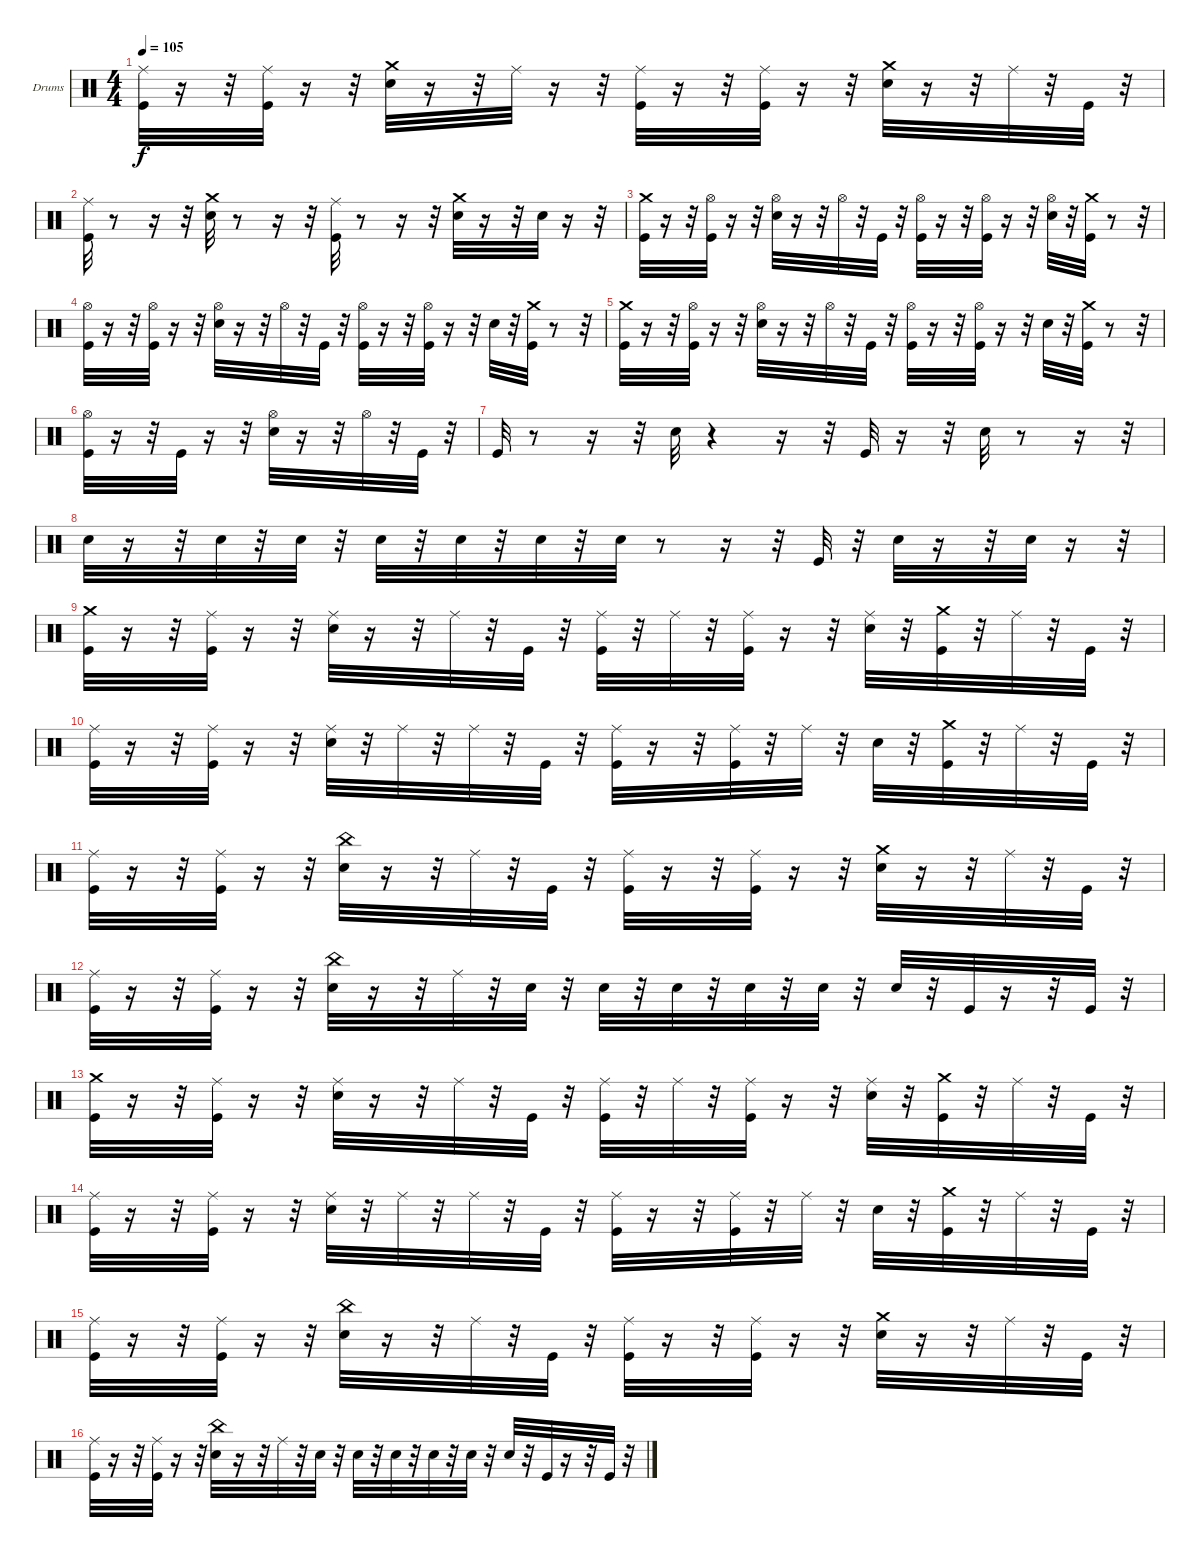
\defaultSystemsLayout 4
\bracketExtendMode groupsimilarinstruments
\firstSystemTrackNameOrientation horizontal
\otherSystemsTrackNameOrientation horizontal
\track ("Drumkit" "Drums") {instrument percussion}
\staff {score}
\articulation defaults
\ts (4 4)
\tempo 105
\clef neutral
\ks c
("Kick (hit)" "Ride (middle)").32{dy f} r.16 r.32 ("Ride (middle)" "Kick (hit)").32 r.16 r.32 ("Crash medium (hit)" "Snare (hit) 2").32 r.16 r.32 "Ride (middle)".32 r.16 r.32 ("Kick (hit)" "Ride (middle)").32 r.16 r.32 ("Ride (middle)" "Kick (hit)").32 r.16 r.32 ("Crash medium (hit)" "Snare (hit) 2").32 r.16 r.32 "Ride (middle)".32 r.32 "Kick (hit)".32 r.32 |
("Kick (hit)" "Ride (middle)").32 r.8 r.16 r.32 ("Crash medium (hit)" "Snare (hit) 2").32 r.8 r.16 r.32 ("Kick (hit)" "Ride (middle)").32 r.8 r.16 r.32 ("Crash medium (hit)" "Snare (hit) 2").32 r.16 r.32 "Snare (hit) 2".32 r.16 r.32 |
("Crash medium (hit)" "Kick (hit)").32 r.16 r.32 ("Hi-Hat (open)" "Kick (hit)").32 r.16 r.32 ("Hi-Hat (open)" "Snare (hit) 2").32 r.16 r.32 "Hi-Hat (open)".32 r.32 "Kick (hit)".32 r.32 ("Kick (hit)" "Hi-Hat (open)").32 r.16 r.32 ("Kick (hit)" "Hi-Hat (open)").32 r.16 r.32 ("Hi-Hat (open)" "Snare (hit) 2").32 r.32 ("Kick (hit)" "Crash medium (hit)").32 r.8 r.32 |
("Hi-Hat (open)" "Kick (hit)").32 r.16 r.32 ("Kick (hit)" "Hi-Hat (open)").32 r.16 r.32 ("Hi-Hat (open)" "Snare (hit) 2").32 r.16 r.32 "Hi-Hat (open)".32 r.32 "Kick (hit)".32 r.32 ("Kick (hit)" "Hi-Hat (open)").32 r.16 r.32 ("Kick (hit)" "Hi-Hat (open)").32 r.16 r.32 "Snare (hit) 2".32 r.32 ("Kick (hit)" "Crash medium (hit)").32 r.8 r.32 |
("Crash medium (hit)" "Kick (hit)").32 r.16 r.32 ("Kick (hit)" "Hi-Hat (open)").32 r.16 r.32 ("Snare (hit) 2" "Hi-Hat (open)").32 r.16 r.32 "Hi-Hat (open)".32 r.32 "Kick (hit)".32 r.32 ("Kick (hit)" "Hi-Hat (open)").32 r.16 r.32 ("Hi-Hat (open)" "Kick (hit)").32 r.16 r.32 "Snare (hit) 2".32 r.32 ("Crash medium (hit)" "Kick (hit)").32 r.8 r.32 |
("Kick (hit)" "Hi-Hat (open)").32 r.16 r.32 "Kick (hit)".32 r.16 r.32 ("Snare (hit) 2" "Hi-Hat (open)").32 r.16 r.32 "Hi-Hat (open)".32 r.32 "Kick (hit)".32 r.32 |
"Kick (hit)".32 r.8 r.16 r.32 "Snare (hit) 2".32 r.4 r.16 r.32 "Kick (hit)".32 r.16 r.32 "Snare (hit) 2".32 r.8 r.16 r.32 |
"Snare (hit) 2".32 r.16 r.32 "Snare (hit) 2".32 r.32 "Snare (hit) 2".32 r.32 "Snare (hit) 2".32 r.32 "Snare (hit) 2".32 r.32 "Snare (hit) 2".32 r.32 "Snare (hit) 2".32 r.8 r.16 r.32 "Kick (hit)".32 r.32 "Snare (hit) 2".32 r.16 r.32 "Snare (hit) 2".32 r.16 r.32 |
("Crash medium (hit)" "Kick (hit)").32 r.16 r.32 ("Kick (hit)" "Ride (middle)").32 r.16 r.32 ("Ride (middle)" "Snare (hit) 2").32 r.16 r.32 "Ride (middle)".32 r.32 "Kick (hit)".32 r.32 ("Kick (hit)" "Ride (middle)").32 r.32 "Ride (middle)".32 r.32 ("Ride (middle)" "Kick (hit)").32 r.16 r.32 ("Snare (hit) 2" "Ride (middle)").32 r.32 ("Crash medium (hit)" "Kick (hit)").32 r.32 "Ride (middle)".32 r.32 "Kick (hit)".32 r.32 |
("Kick (hit)" "Ride (middle)").32 r.16 r.32 ("Kick (hit)" "Ride (middle)").32 r.16 r.32 ("Snare (hit) 2" "Ride (middle)").32 r.32 "Ride (middle)".32 r.32 "Ride (middle)".32 r.32 "Kick (hit)".32 r.32 ("Ride (middle)" "Kick (hit)").32 r.16 r.32 ("Kick (hit)" "Ride (middle)").32 r.32 "Ride (middle)".32 r.32 "Snare (hit) 2".32 r.32 ("Kick (hit)" "Crash medium (hit)").32 r.32 "Ride (middle)".32 r.32 "Kick (hit)".32 r.32 |
("Kick (hit)" "Ride (middle)").32 r.16 r.32 ("Kick (hit)" "Ride (middle)").32 r.16 r.32 ("China (hit)" "Snare (hit) 2").32 r.16 r.32 "Ride (middle)".32 r.32 "Kick (hit)".32 r.32 ("Kick (hit)" "Ride (middle)").32 r.16 r.32 ("Ride (middle)" "Kick (hit)").32 r.16 r.32 ("Snare (hit) 2" "Crash medium (hit)").32 r.16 r.32 "Ride (middle)".32 r.32 "Kick (hit)".32 r.32 |
("Ride (middle)" "Kick (hit)").32 r.16 r.32 ("Kick (hit)" "Ride (middle)").32 r.16 r.32 ("Snare (hit) 2" "China (hit)").32 r.16 r.32 "Ride (middle)".32 r.32 "Snare (hit) 2".32 r.32 "Snare (hit) 2".32 r.32 "Snare (hit) 2".32 r.32 "Snare (hit) 2".32 r.32 "Snare (hit) 2".32 r.32 "Snare (hit) 2".32 r.32 "Kick (hit)".32 r.16 r.32 "Kick (hit)".32 r.32 |
("Crash medium (hit)" "Kick (hit)").32 r.16 r.32 ("Kick (hit)" "Ride (middle)").32 r.16 r.32 ("Ride (middle)" "Snare (hit) 2").32 r.16 r.32 "Ride (middle)".32 r.32 "Kick (hit)".32 r.32 ("Kick (hit)" "Ride (middle)").32 r.32 "Ride (middle)".32 r.32 ("Ride (middle)" "Kick (hit)").32 r.16 r.32 ("Snare (hit) 2" "Ride (middle)").32 r.32 ("Crash medium (hit)" "Kick (hit)").32 r.32 "Ride (middle)".32 r.32 "Kick (hit)".32 r.32 |
("Kick (hit)" "Ride (middle)").32 r.16 r.32 ("Kick (hit)" "Ride (middle)").32 r.16 r.32 ("Snare (hit) 2" "Ride (middle)").32 r.32 "Ride (middle)".32 r.32 "Ride (middle)".32 r.32 "Kick (hit)".32 r.32 ("Ride (middle)" "Kick (hit)").32 r.16 r.32 ("Kick (hit)" "Ride (middle)").32 r.32 "Ride (middle)".32 r.32 "Snare (hit) 2".32 r.32 ("Kick (hit)" "Crash medium (hit)").32 r.32 "Ride (middle)".32 r.32 "Kick (hit)".32 r.32 |
("Kick (hit)" "Ride (middle)").32 r.16 r.32 ("Kick (hit)" "Ride (middle)").32 r.16 r.32 ("China (hit)" "Snare (hit) 2").32 r.16 r.32 "Ride (middle)".32 r.32 "Kick (hit)".32 r.32 ("Kick (hit)" "Ride (middle)").32 r.16 r.32 ("Ride (middle)" "Kick (hit)").32 r.16 r.32 ("Snare (hit) 2" "Crash medium (hit)").32 r.16 r.32 "Ride (middle)".32 r.32 "Kick (hit)".32 r.32 |
("Ride (middle)" "Kick (hit)").32 r.16 r.32 ("Kick (hit)" "Ride (middle)").32 r.16 r.32 ("Snare (hit) 2" "China (hit)").32 r.16 r.32 "Ride (middle)".32 r.32 "Snare (hit) 2".32 r.32 "Snare (hit) 2".32 r.32 "Snare (hit) 2".32 r.32 "Snare (hit) 2".32 r.32 "Snare (hit) 2".32 r.32 "Snare (hit) 2".32 r.32 "Kick (hit)".32 r.16 r.32 "Kick (hit)".32 r.32
